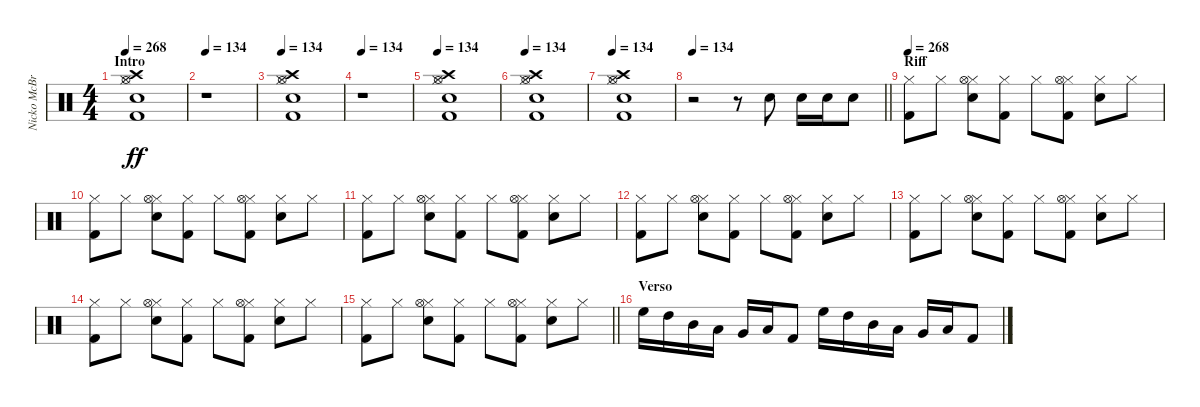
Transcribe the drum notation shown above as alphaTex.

\track ("Nicko McBrain" "Nicko McBr") {instrument percussion}
\staff {score}
\articulation defaults
\ts (4 4)
\section ("" "Intro")
\tempo 268
\tempo 134
\tempo 268
\clef neutral
\ks c
("Kick (hit) 2" "Snare (hit) 2" "Hi-Hat (closed)" "Hi-Hat (open)" "Crash high (hit)").1{dy ff} |
\tempo 134
r.1 |
\tempo 134
("Kick (hit) 2" "Snare (hit) 2" "Hi-Hat (closed)" "Hi-Hat (open)" "Crash high (hit)").1 |
\tempo 134
r.1 |
\tempo 134
("Kick (hit) 2" "Snare (hit) 2" "Hi-Hat (closed)" "Hi-Hat (open)" "Crash high (hit)").1 |
\tempo 134
("Kick (hit) 2" "Snare (hit) 2" "Hi-Hat (closed)" "Hi-Hat (open)" "Crash high (hit)").1 |
\tempo 134
("Kick (hit) 2" "Snare (hit) 2" "Hi-Hat (closed)" "Hi-Hat (open)" "Crash high (hit)").1 |
\tempo 134
\barLineRight lightlight
r.2 r.8 "Snare (hit) 2".8 "Snare (hit) 2".16 "Snare (hit) 2".16 "Snare (hit) 2".8 |
\section ("" "Riff")
\tempo 268
("Kick (hit) 2" "Hi-Hat (closed)").8 "Hi-Hat (closed)".8 ("Snare (hit) 2" "Hi-Hat (closed)" "Hi-Hat (open)").8 ("Kick (hit) 2" "Hi-Hat (closed)").8 "Hi-Hat (closed)".8 ("Kick (hit) 2" "Hi-Hat (closed)" "Hi-Hat (open)").8 ("Snare (hit) 2" "Hi-Hat (closed)").8 "Hi-Hat (closed)".8 |
("Kick (hit) 2" "Hi-Hat (closed)").8 "Hi-Hat (closed)".8 ("Snare (hit) 2" "Hi-Hat (closed)" "Hi-Hat (open)").8 ("Kick (hit) 2" "Hi-Hat (closed)").8 "Hi-Hat (closed)".8 ("Kick (hit) 2" "Hi-Hat (closed)" "Hi-Hat (open)").8 ("Snare (hit) 2" "Hi-Hat (closed)").8 "Hi-Hat (closed)".8 |
("Kick (hit) 2" "Hi-Hat (closed)").8 "Hi-Hat (closed)".8 ("Snare (hit) 2" "Hi-Hat (closed)" "Hi-Hat (open)").8 ("Kick (hit) 2" "Hi-Hat (closed)").8 "Hi-Hat (closed)".8 ("Kick (hit) 2" "Hi-Hat (closed)" "Hi-Hat (open)").8 ("Snare (hit) 2" "Hi-Hat (closed)").8 "Hi-Hat (closed)".8 |
("Kick (hit) 2" "Hi-Hat (closed)").8 "Hi-Hat (closed)".8 ("Snare (hit) 2" "Hi-Hat (closed)" "Hi-Hat (open)").8 ("Kick (hit) 2" "Hi-Hat (closed)").8 "Hi-Hat (closed)".8 ("Kick (hit) 2" "Hi-Hat (closed)" "Hi-Hat (open)").8 ("Snare (hit) 2" "Hi-Hat (closed)").8 "Hi-Hat (closed)".8 |
("Kick (hit) 2" "Hi-Hat (closed)").8 "Hi-Hat (closed)".8 ("Snare (hit) 2" "Hi-Hat (closed)" "Hi-Hat (open)").8 ("Kick (hit) 2" "Hi-Hat (closed)").8 "Hi-Hat (closed)".8 ("Kick (hit) 2" "Hi-Hat (closed)" "Hi-Hat (open)").8 ("Snare (hit) 2" "Hi-Hat (closed)").8 "Hi-Hat (closed)".8 |
("Kick (hit) 2" "Hi-Hat (closed)").8 "Hi-Hat (closed)".8 ("Snare (hit) 2" "Hi-Hat (closed)" "Hi-Hat (open)").8 ("Kick (hit) 2" "Hi-Hat (closed)").8 "Hi-Hat (closed)".8 ("Kick (hit) 2" "Hi-Hat (closed)" "Hi-Hat (open)").8 ("Snare (hit) 2" "Hi-Hat (closed)").8 "Hi-Hat (closed)".8 |
\barLineRight lightlight
("Kick (hit) 2" "Hi-Hat (closed)").8 "Hi-Hat (closed)".8 ("Snare (hit) 2" "Hi-Hat (closed)" "Hi-Hat (open)").8 ("Kick (hit) 2" "Hi-Hat (closed)").8 "Hi-Hat (closed)".8 ("Kick (hit) 2" "Hi-Hat (closed)" "Hi-Hat (open)").8 ("Snare (hit) 2" "Hi-Hat (closed)").8 "Hi-Hat (closed)".8 |
\section ("" "Verso ")
"High Floor Tom (hit)".16 "High Tom (hit)".16 "Mid Tom (hit)".16 "Low Tom (hit)".16 "Very Low Tom (hit)".16 "Low Floor Tom (hit)".16 "Kick (hit) 2".8 "High Floor Tom (hit)".16 "High Tom (hit)".16 "Mid Tom (hit)".16 "Low Tom (hit)".16 "Very Low Tom (hit)".16 "Low Floor Tom (hit)".16 "Kick (hit) 2".8
